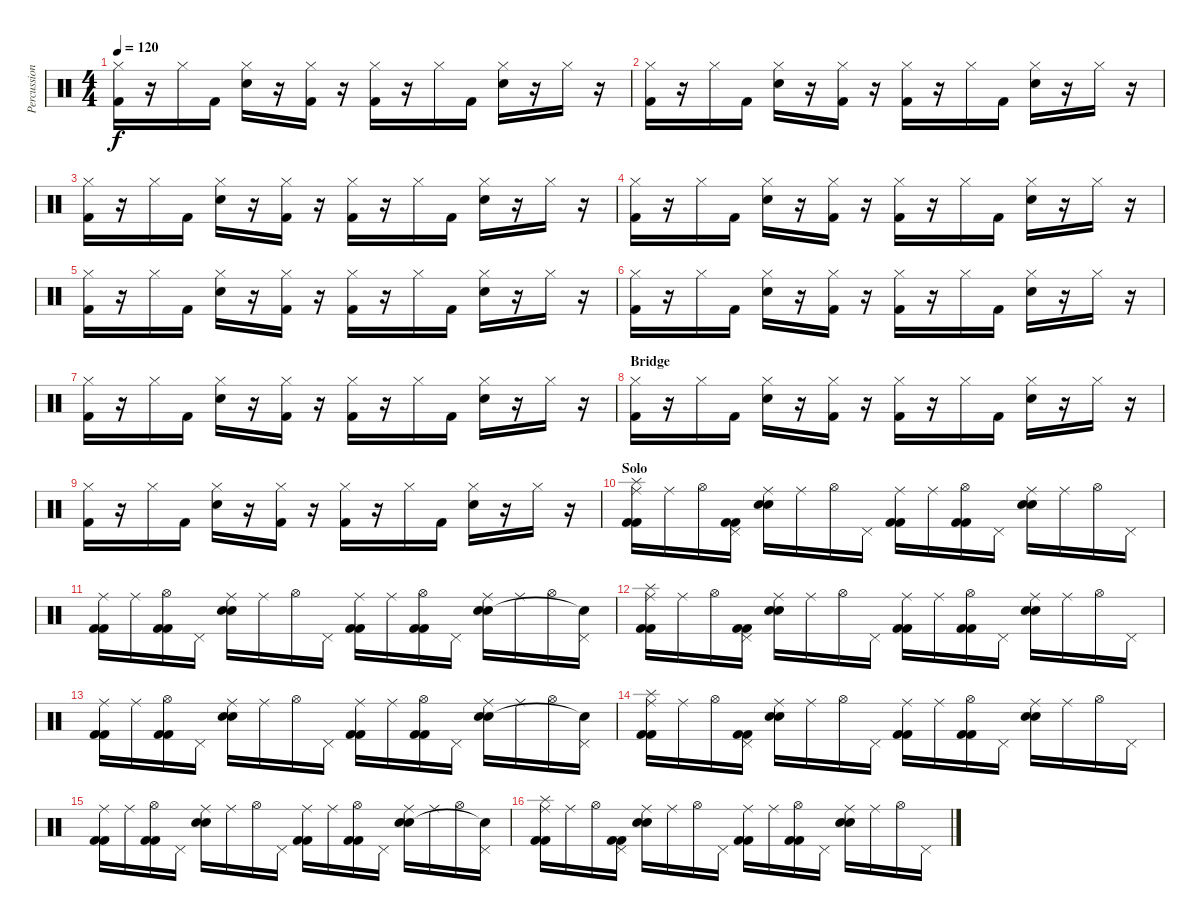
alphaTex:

\track ("Percussion" "Percussion") {instrument percussion}
\staff {score}
\articulation defaults
\ts (4 4)
\tempo 120
\clef neutral
\ks c
("Kick (hit) 2" "Hi-Hat (closed)").16{dy f} r.16 "Hi-Hat (closed)".16 "Kick (hit) 2".16 ("Electric Snare (hit)" "Hi-Hat (closed)").16 r.16 ("Kick (hit) 2" "Hi-Hat (closed)").16 r.16 ("Kick (hit) 2" "Hi-Hat (closed)").16 r.16 "Hi-Hat (closed)".16 "Kick (hit) 2".16 ("Electric Snare (hit)" "Hi-Hat (closed)").16 r.16 "Hi-Hat (closed)".16 r.16 |
("Kick (hit) 2" "Hi-Hat (closed)").16 r.16 "Hi-Hat (closed)".16 "Kick (hit) 2".16 ("Electric Snare (hit)" "Hi-Hat (closed)").16 r.16 ("Kick (hit) 2" "Hi-Hat (closed)").16 r.16 ("Kick (hit) 2" "Hi-Hat (closed)").16 r.16 "Hi-Hat (closed)".16 "Kick (hit) 2".16 ("Electric Snare (hit)" "Hi-Hat (closed)").16 r.16 "Hi-Hat (closed)".16 r.16 |
("Kick (hit) 2" "Hi-Hat (closed)").16 r.16 "Hi-Hat (closed)".16 "Kick (hit) 2".16 ("Electric Snare (hit)" "Hi-Hat (closed)").16 r.16 ("Kick (hit) 2" "Hi-Hat (closed)").16 r.16 ("Kick (hit) 2" "Hi-Hat (closed)").16 r.16 "Hi-Hat (closed)".16 "Kick (hit) 2".16 ("Electric Snare (hit)" "Hi-Hat (closed)").16 r.16 "Hi-Hat (closed)".16 r.16 |
("Kick (hit) 2" "Hi-Hat (closed)").16 r.16 "Hi-Hat (closed)".16 "Kick (hit) 2".16 ("Electric Snare (hit)" "Hi-Hat (closed)").16 r.16 ("Kick (hit) 2" "Hi-Hat (closed)").16 r.16 ("Kick (hit) 2" "Hi-Hat (closed)").16 r.16 "Hi-Hat (closed)".16 "Kick (hit) 2".16 ("Electric Snare (hit)" "Hi-Hat (closed)").16 r.16 "Hi-Hat (closed)".16 r.16 |
("Kick (hit) 2" "Hi-Hat (closed)").16 r.16 "Hi-Hat (closed)".16 "Kick (hit) 2".16 ("Electric Snare (hit)" "Hi-Hat (closed)").16 r.16 ("Kick (hit) 2" "Hi-Hat (closed)").16 r.16 ("Kick (hit) 2" "Hi-Hat (closed)").16 r.16 "Hi-Hat (closed)".16 "Kick (hit) 2".16 ("Electric Snare (hit)" "Hi-Hat (closed)").16 r.16 "Hi-Hat (closed)".16 r.16 |
("Kick (hit) 2" "Hi-Hat (closed)").16 r.16 "Hi-Hat (closed)".16 "Kick (hit) 2".16 ("Electric Snare (hit)" "Hi-Hat (closed)").16 r.16 ("Kick (hit) 2" "Hi-Hat (closed)").16 r.16 ("Kick (hit) 2" "Hi-Hat (closed)").16 r.16 "Hi-Hat (closed)".16 "Kick (hit) 2".16 ("Electric Snare (hit)" "Hi-Hat (closed)").16 r.16 "Hi-Hat (closed)".16 r.16 |
("Kick (hit) 2" "Hi-Hat (closed)").16 r.16 "Hi-Hat (closed)".16 "Kick (hit) 2".16 ("Electric Snare (hit)" "Hi-Hat (closed)").16 r.16 ("Kick (hit) 2" "Hi-Hat (closed)").16 r.16 ("Kick (hit) 2" "Hi-Hat (closed)").16 r.16 "Hi-Hat (closed)".16 "Kick (hit) 2".16 ("Electric Snare (hit)" "Hi-Hat (closed)").16 r.16 "Hi-Hat (closed)".16 r.16 |
\section ("" "Bridge")
("Kick (hit) 2" "Hi-Hat (closed)").16 r.16 "Hi-Hat (closed)".16 "Kick (hit) 2".16 ("Electric Snare (hit)" "Hi-Hat (closed)").16 r.16 ("Kick (hit) 2" "Hi-Hat (closed)").16 r.16 ("Kick (hit) 2" "Hi-Hat (closed)").16 r.16 "Hi-Hat (closed)".16 "Kick (hit) 2".16 ("Electric Snare (hit)" "Hi-Hat (closed)").16 r.16 "Hi-Hat (closed)".16 r.16 |
("Kick (hit) 2" "Hi-Hat (closed)").16 r.16 "Hi-Hat (closed)".16 "Kick (hit) 2".16 ("Electric Snare (hit)" "Hi-Hat (closed)").16 r.16 ("Kick (hit) 2" "Hi-Hat (closed)").16 r.16 ("Kick (hit) 2" "Hi-Hat (closed)").16 r.16 "Hi-Hat (closed)".16 "Kick (hit) 2".16 ("Electric Snare (hit)" "Hi-Hat (closed)").16 r.16 "Hi-Hat (closed)".16 r.16 |
\section ("" "Solo")
("Ride (middle)" "Splash (hit)" "Kick (hit) 2" "Kick (hit) 2").16 "Ride (middle)".16 "Hi-Hat (open)".16 ("Pedal Hi-Hat (hit)" "Kick (hit) 2" "Kick (hit) 2").16 ("Ride (middle)" "Electric Snare (hit)" "Electric Snare (hit)").16 "Ride (middle)".16 "Hi-Hat (open)".16 "Pedal Hi-Hat (hit)".16 ("Ride (middle)" "Kick (hit) 2" "Kick (hit) 2").16 "Ride (middle)".16 ("Hi-Hat (open)" "Kick (hit) 2" "Kick (hit) 2").16 "Pedal Hi-Hat (hit)".16 ("Ride (middle)" "Electric Snare (hit)" "Electric Snare (hit)").16 "Ride (middle)".16 "Hi-Hat (open)".16 "Pedal Hi-Hat (hit)".16 |
("Ride (middle)" "Kick (hit) 2" "Kick (hit) 2").16 "Ride (middle)".16 ("Hi-Hat (open)" "Kick (hit) 2" "Kick (hit) 2").16 "Pedal Hi-Hat (hit)".16 ("Ride (middle)" "Electric Snare (hit)" "Electric Snare (hit)").16 "Ride (middle)".16 "Hi-Hat (open)".16 "Pedal Hi-Hat (hit)".16 ("Ride (middle)" "Kick (hit) 2" "Kick (hit) 2").16 "Ride (middle)".16 ("Hi-Hat (open)" "Kick (hit) 2" "Kick (hit) 2").16 "Pedal Hi-Hat (hit)".16 ("Ride (middle)" "Electric Snare (hit)" "Electric Snare (hit)").16 "Ride (middle)".16 "Hi-Hat (open)".16 ("Pedal Hi-Hat (hit)" "Snare (hit)"{t}).16 |
("Ride (middle)" "Splash (hit)" "Kick (hit) 2" "Kick (hit) 2").16 "Ride (middle)".16 "Hi-Hat (open)".16 ("Pedal Hi-Hat (hit)" "Kick (hit) 2" "Kick (hit) 2").16 ("Ride (middle)" "Electric Snare (hit)" "Electric Snare (hit)").16 "Ride (middle)".16 "Hi-Hat (open)".16 "Pedal Hi-Hat (hit)".16 ("Ride (middle)" "Kick (hit) 2" "Kick (hit) 2").16 "Ride (middle)".16 ("Hi-Hat (open)" "Kick (hit) 2" "Kick (hit) 2").16 "Pedal Hi-Hat (hit)".16 ("Ride (middle)" "Electric Snare (hit)" "Electric Snare (hit)").16 "Ride (middle)".16 "Hi-Hat (open)".16 "Pedal Hi-Hat (hit)".16 |
("Ride (middle)" "Kick (hit) 2" "Kick (hit) 2").16 "Ride (middle)".16 ("Hi-Hat (open)" "Kick (hit) 2" "Kick (hit) 2").16 "Pedal Hi-Hat (hit)".16 ("Ride (middle)" "Electric Snare (hit)" "Electric Snare (hit)").16 "Ride (middle)".16 "Hi-Hat (open)".16 "Pedal Hi-Hat (hit)".16 ("Ride (middle)" "Kick (hit) 2" "Kick (hit) 2").16 "Ride (middle)".16 ("Hi-Hat (open)" "Kick (hit) 2" "Kick (hit) 2").16 "Pedal Hi-Hat (hit)".16 ("Ride (middle)" "Electric Snare (hit)" "Electric Snare (hit)").16 "Ride (middle)".16 "Hi-Hat (open)".16 ("Pedal Hi-Hat (hit)" "Snare (hit)"{t}).16 |
("Ride (middle)" "Splash (hit)" "Kick (hit) 2" "Kick (hit) 2").16 "Ride (middle)".16 "Hi-Hat (open)".16 ("Pedal Hi-Hat (hit)" "Kick (hit) 2" "Kick (hit) 2").16 ("Ride (middle)" "Electric Snare (hit)" "Electric Snare (hit)").16 "Ride (middle)".16 "Hi-Hat (open)".16 "Pedal Hi-Hat (hit)".16 ("Ride (middle)" "Kick (hit) 2" "Kick (hit) 2").16 "Ride (middle)".16 ("Hi-Hat (open)" "Kick (hit) 2" "Kick (hit) 2").16 "Pedal Hi-Hat (hit)".16 ("Ride (middle)" "Electric Snare (hit)" "Electric Snare (hit)").16 "Ride (middle)".16 "Hi-Hat (open)".16 "Pedal Hi-Hat (hit)".16 |
("Ride (middle)" "Kick (hit) 2" "Kick (hit) 2").16 "Ride (middle)".16 ("Hi-Hat (open)" "Kick (hit) 2" "Kick (hit) 2").16 "Pedal Hi-Hat (hit)".16 ("Ride (middle)" "Electric Snare (hit)" "Electric Snare (hit)").16 "Ride (middle)".16 "Hi-Hat (open)".16 "Pedal Hi-Hat (hit)".16 ("Ride (middle)" "Kick (hit) 2" "Kick (hit) 2").16 "Ride (middle)".16 ("Hi-Hat (open)" "Kick (hit) 2" "Kick (hit) 2").16 "Pedal Hi-Hat (hit)".16 ("Ride (middle)" "Electric Snare (hit)" "Electric Snare (hit)").16 "Ride (middle)".16 "Hi-Hat (open)".16 ("Pedal Hi-Hat (hit)" "Snare (hit)"{t}).16 |
("Ride (middle)" "Splash (hit)" "Kick (hit) 2" "Kick (hit) 2").16 "Ride (middle)".16 "Hi-Hat (open)".16 ("Pedal Hi-Hat (hit)" "Kick (hit) 2" "Kick (hit) 2").16 ("Ride (middle)" "Electric Snare (hit)" "Electric Snare (hit)").16 "Ride (middle)".16 "Hi-Hat (open)".16 "Pedal Hi-Hat (hit)".16 ("Ride (middle)" "Kick (hit) 2" "Kick (hit) 2").16 "Ride (middle)".16 ("Hi-Hat (open)" "Kick (hit) 2" "Kick (hit) 2").16 "Pedal Hi-Hat (hit)".16 ("Ride (middle)" "Electric Snare (hit)" "Electric Snare (hit)").16 "Ride (middle)".16 "Hi-Hat (open)".16 "Pedal Hi-Hat (hit)".16
